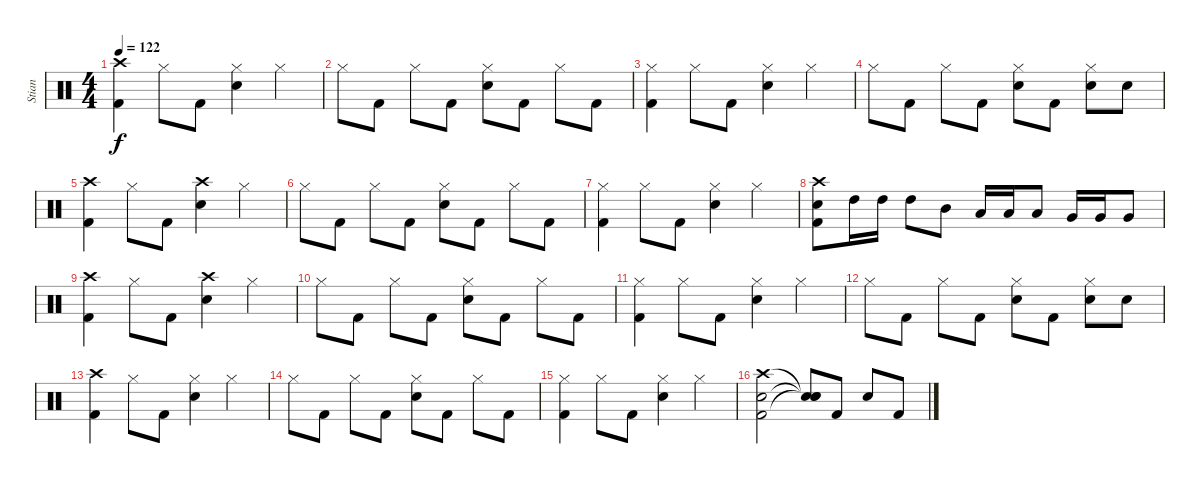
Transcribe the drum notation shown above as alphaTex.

\track ("Stian" "Stian") {instrument percussion}
\staff {score}
\articulation defaults
\ts (4 4)
\tempo 122
\clef neutral
\ks c
("Crash high (hit)" "Kick (hit) 2").4{dy f} "Hi-Hat (closed)".8 "Kick (hit) 2".8 ("Hi-Hat (closed)" "Electric Snare (hit)").4 "Hi-Hat (closed)".4 |
"Hi-Hat (closed)".8 "Kick (hit) 2".8 "Hi-Hat (closed)".8 "Kick (hit) 2".8 ("Hi-Hat (closed)" "Electric Snare (hit)").8 "Kick (hit) 2".8 "Hi-Hat (closed)".8 "Kick (hit) 2".8 |
("Hi-Hat (closed)" "Kick (hit) 2").4 "Hi-Hat (closed)".8 "Kick (hit) 2".8 ("Hi-Hat (closed)" "Electric Snare (hit)").4 "Hi-Hat (closed)".4 |
"Hi-Hat (closed)".8 "Kick (hit) 2".8 "Hi-Hat (closed)".8 "Kick (hit) 2".8 ("Hi-Hat (closed)" "Electric Snare (hit)").8 "Kick (hit) 2".8 ("Hi-Hat (closed)" "Electric Snare (hit)").8 "Electric Snare (hit)".8 |
("Crash high (hit)" "Kick (hit) 2").4 "Hi-Hat (closed)".8 "Kick (hit) 2".8 ("Crash high (hit)" "Electric Snare (hit)").4 "Hi-Hat (closed)".4 |
"Hi-Hat (closed)".8 "Kick (hit) 2".8 "Hi-Hat (closed)".8 "Kick (hit) 2".8 ("Hi-Hat (closed)" "Electric Snare (hit)").8 "Kick (hit) 2".8 "Hi-Hat (closed)".8 "Kick (hit) 2".8 |
("Hi-Hat (closed)" "Kick (hit) 2").4 "Hi-Hat (closed)".8 "Kick (hit) 2".8 ("Hi-Hat (closed)" "Electric Snare (hit)").4 "Hi-Hat (closed)".4 |
("Crash high (hit)" "Electric Snare (hit)" "Kick (hit) 2").8 "High Tom (hit)".16 "High Tom (hit)".16 "High Tom (hit)".8 "Mid Tom (hit)".8 "Low Tom (hit)".16 "Low Tom (hit)".16 "Low Tom (hit)".8 "Very Low Tom (hit)".16 "Very Low Tom (hit)".16 "Very Low Tom (hit)".8 |
("Crash high (hit)" "Kick (hit) 2").4 "Hi-Hat (closed)".8 "Kick (hit) 2".8 ("Crash high (hit)" "Electric Snare (hit)").4 "Hi-Hat (closed)".4 |
"Hi-Hat (closed)".8 "Kick (hit) 2".8 "Hi-Hat (closed)".8 "Kick (hit) 2".8 ("Hi-Hat (closed)" "Electric Snare (hit)").8 "Kick (hit) 2".8 "Hi-Hat (closed)".8 "Kick (hit) 2".8 |
("Hi-Hat (closed)" "Kick (hit) 2").4 "Hi-Hat (closed)".8 "Kick (hit) 2".8 ("Hi-Hat (closed)" "Electric Snare (hit)").4 "Hi-Hat (closed)".4 |
"Hi-Hat (closed)".8 "Kick (hit) 2".8 "Hi-Hat (closed)".8 "Kick (hit) 2".8 ("Hi-Hat (closed)" "Electric Snare (hit)").8 "Kick (hit) 2".8 ("Hi-Hat (closed)" "Electric Snare (hit)").8 "Electric Snare (hit)".8 |
("Crash high (hit)" "Kick (hit) 2").4 "Hi-Hat (closed)".8 "Kick (hit) 2".8 ("Hi-Hat (closed)" "Electric Snare (hit)").4 "Hi-Hat (closed)".4 |
"Hi-Hat (closed)".8 "Kick (hit) 2".8 "Hi-Hat (closed)".8 "Kick (hit) 2".8 ("Hi-Hat (closed)" "Electric Snare (hit)").8 "Kick (hit) 2".8 "Hi-Hat (closed)".8 "Kick (hit) 2".8 |
("Hi-Hat (closed)" "Kick (hit) 2").4 "Hi-Hat (closed)".8 "Kick (hit) 2".8 ("Hi-Hat (closed)" "Electric Snare (hit)").4 "Hi-Hat (closed)".4 |
("Crash high (hit)" "Electric Snare (hit)" "Kick (hit) 2").2 ("Snare (hit)"{t} "Snare (hit)"{t} "Snare (hit)"{t}).8 "Kick (hit) 2".8 "Electric Snare (hit)".8 "Kick (hit) 2".8
